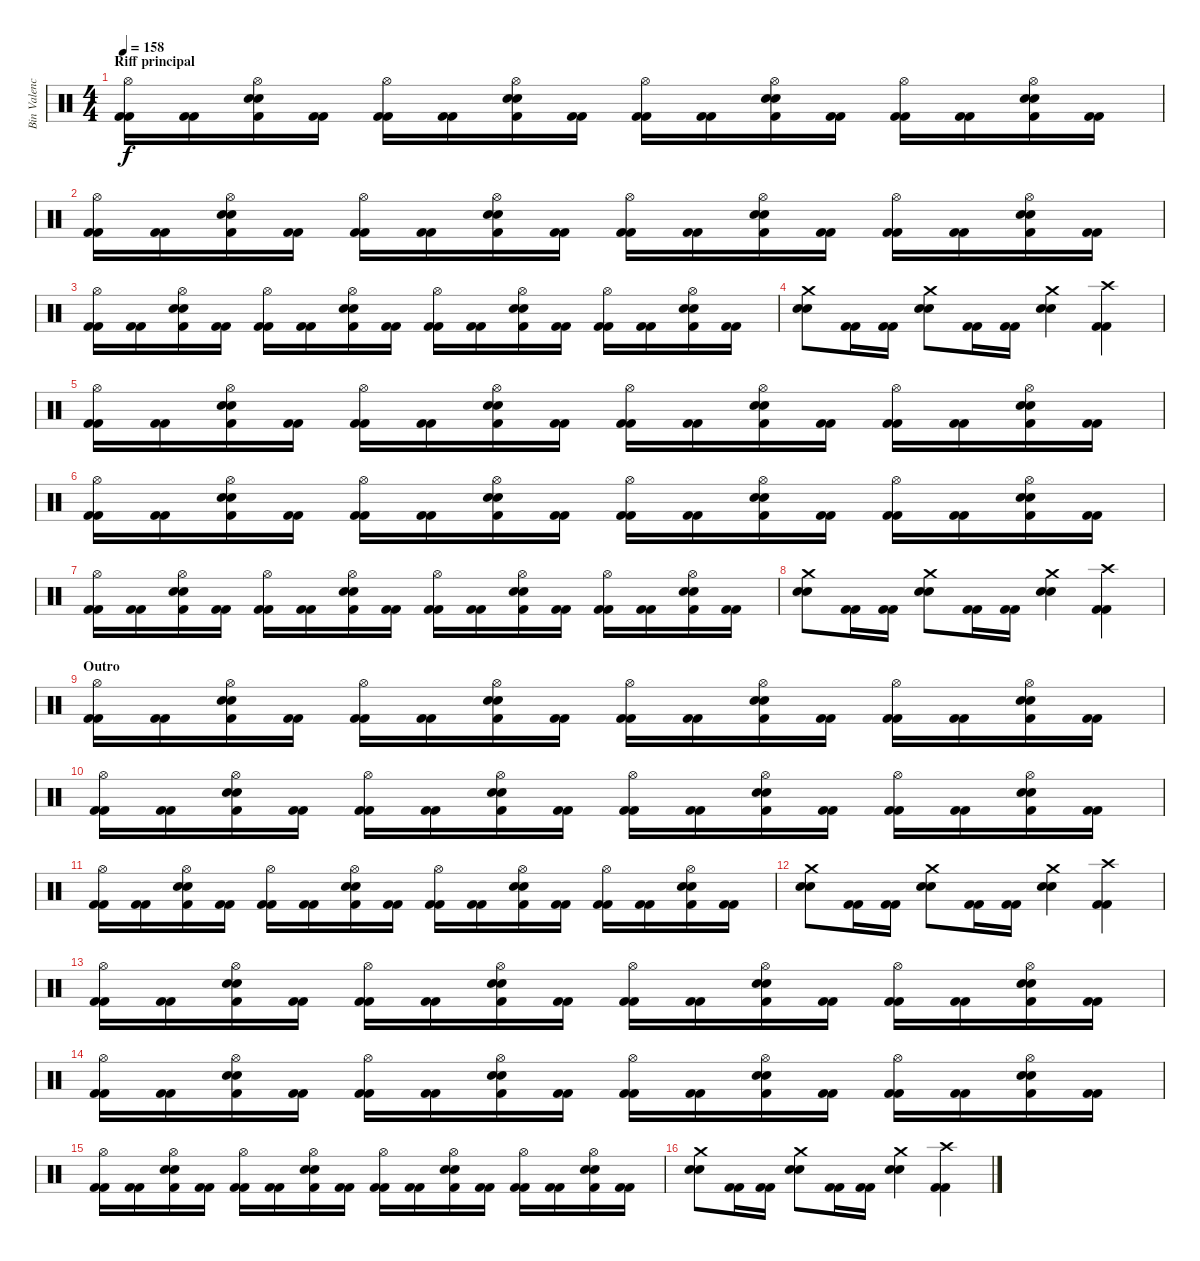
\track ("Bin Valencia (bateria)" "Bin Valenc") {instrument percussion}
\staff {score}
\articulation defaults
\ts (4 4)
\section ("" "Riff principal")
\tempo 158
\clef neutral
\ks c
("Hi-Hat (open)" "Kick (hit) 2" "Kick (hit) 2").16{dy f} ("Kick (hit) 2" "Kick (hit) 2").16 ("Hi-Hat (open)" "Snare (hit) 2" "Snare (hit) 2" "Kick (hit) 2").16 ("Kick (hit) 2" "Kick (hit) 2").16 ("Hi-Hat (open)" "Kick (hit) 2" "Kick (hit) 2").16 ("Kick (hit) 2" "Kick (hit) 2").16 ("Hi-Hat (open)" "Snare (hit) 2" "Snare (hit) 2" "Kick (hit) 2").16 ("Kick (hit) 2" "Kick (hit) 2").16 ("Hi-Hat (open)" "Kick (hit) 2" "Kick (hit) 2").16 ("Kick (hit) 2" "Kick (hit) 2").16 ("Hi-Hat (open)" "Snare (hit) 2" "Snare (hit) 2" "Kick (hit) 2").16 ("Kick (hit) 2" "Kick (hit) 2").16 ("Hi-Hat (open)" "Kick (hit) 2" "Kick (hit) 2").16 ("Kick (hit) 2" "Kick (hit) 2").16 ("Hi-Hat (open)" "Snare (hit) 2" "Snare (hit) 2" "Kick (hit) 2").16 ("Kick (hit) 2" "Kick (hit) 2").16 |
("Hi-Hat (open)" "Kick (hit) 2" "Kick (hit) 2").16 ("Kick (hit) 2" "Kick (hit) 2").16 ("Hi-Hat (open)" "Snare (hit) 2" "Snare (hit) 2" "Kick (hit) 2").16 ("Kick (hit) 2" "Kick (hit) 2").16 ("Hi-Hat (open)" "Kick (hit) 2" "Kick (hit) 2").16 ("Kick (hit) 2" "Kick (hit) 2").16 ("Hi-Hat (open)" "Snare (hit) 2" "Snare (hit) 2" "Kick (hit) 2").16 ("Kick (hit) 2" "Kick (hit) 2").16 ("Hi-Hat (open)" "Kick (hit) 2" "Kick (hit) 2").16 ("Kick (hit) 2" "Kick (hit) 2").16 ("Hi-Hat (open)" "Snare (hit) 2" "Snare (hit) 2" "Kick (hit) 2").16 ("Kick (hit) 2" "Kick (hit) 2").16 ("Hi-Hat (open)" "Kick (hit) 2" "Kick (hit) 2").16 ("Kick (hit) 2" "Kick (hit) 2").16 ("Hi-Hat (open)" "Snare (hit) 2" "Snare (hit) 2" "Kick (hit) 2").16 ("Kick (hit) 2" "Kick (hit) 2").16 |
("Hi-Hat (open)" "Kick (hit) 2" "Kick (hit) 2").16 ("Kick (hit) 2" "Kick (hit) 2").16 ("Hi-Hat (open)" "Snare (hit) 2" "Snare (hit) 2" "Kick (hit) 2").16 ("Kick (hit) 2" "Kick (hit) 2").16 ("Hi-Hat (open)" "Kick (hit) 2" "Kick (hit) 2").16 ("Kick (hit) 2" "Kick (hit) 2").16 ("Hi-Hat (open)" "Snare (hit) 2" "Snare (hit) 2" "Kick (hit) 2").16 ("Kick (hit) 2" "Kick (hit) 2").16 ("Hi-Hat (open)" "Kick (hit) 2" "Kick (hit) 2").16 ("Kick (hit) 2" "Kick (hit) 2").16 ("Hi-Hat (open)" "Snare (hit) 2" "Snare (hit) 2" "Kick (hit) 2").16 ("Kick (hit) 2" "Kick (hit) 2").16 ("Hi-Hat (open)" "Kick (hit) 2" "Kick (hit) 2").16 ("Kick (hit) 2" "Kick (hit) 2").16 ("Hi-Hat (open)" "Snare (hit) 2" "Snare (hit) 2" "Kick (hit) 2").16 ("Kick (hit) 2" "Kick (hit) 2").16 |
("Crash medium (hit)" "Snare (hit) 2" "Snare (hit) 2").8 ("Kick (hit) 2" "Kick (hit) 2").16 ("Kick (hit) 2" "Kick (hit) 2").16 ("Crash medium (hit)" "Snare (hit) 2" "Snare (hit) 2").8 ("Kick (hit) 2" "Kick (hit) 2").16 ("Kick (hit) 2" "Kick (hit) 2").16 ("Crash medium (hit)" "Snare (hit) 2" "Snare (hit) 2").4 ("Crash high (hit)" "Kick (hit) 2" "Kick (hit) 2").4 |
("Hi-Hat (open)" "Kick (hit) 2" "Kick (hit) 2").16 ("Kick (hit) 2" "Kick (hit) 2").16 ("Hi-Hat (open)" "Snare (hit) 2" "Snare (hit) 2" "Kick (hit) 2").16 ("Kick (hit) 2" "Kick (hit) 2").16 ("Hi-Hat (open)" "Kick (hit) 2" "Kick (hit) 2").16 ("Kick (hit) 2" "Kick (hit) 2").16 ("Hi-Hat (open)" "Snare (hit) 2" "Snare (hit) 2" "Kick (hit) 2").16 ("Kick (hit) 2" "Kick (hit) 2").16 ("Hi-Hat (open)" "Kick (hit) 2" "Kick (hit) 2").16 ("Kick (hit) 2" "Kick (hit) 2").16 ("Hi-Hat (open)" "Snare (hit) 2" "Snare (hit) 2" "Kick (hit) 2").16 ("Kick (hit) 2" "Kick (hit) 2").16 ("Hi-Hat (open)" "Kick (hit) 2" "Kick (hit) 2").16 ("Kick (hit) 2" "Kick (hit) 2").16 ("Hi-Hat (open)" "Snare (hit) 2" "Snare (hit) 2" "Kick (hit) 2").16 ("Kick (hit) 2" "Kick (hit) 2").16 |
("Hi-Hat (open)" "Kick (hit) 2" "Kick (hit) 2").16 ("Kick (hit) 2" "Kick (hit) 2").16 ("Hi-Hat (open)" "Snare (hit) 2" "Snare (hit) 2" "Kick (hit) 2").16 ("Kick (hit) 2" "Kick (hit) 2").16 ("Hi-Hat (open)" "Kick (hit) 2" "Kick (hit) 2").16 ("Kick (hit) 2" "Kick (hit) 2").16 ("Hi-Hat (open)" "Snare (hit) 2" "Snare (hit) 2" "Kick (hit) 2").16 ("Kick (hit) 2" "Kick (hit) 2").16 ("Hi-Hat (open)" "Kick (hit) 2" "Kick (hit) 2").16 ("Kick (hit) 2" "Kick (hit) 2").16 ("Hi-Hat (open)" "Snare (hit) 2" "Snare (hit) 2" "Kick (hit) 2").16 ("Kick (hit) 2" "Kick (hit) 2").16 ("Hi-Hat (open)" "Kick (hit) 2" "Kick (hit) 2").16 ("Kick (hit) 2" "Kick (hit) 2").16 ("Hi-Hat (open)" "Snare (hit) 2" "Snare (hit) 2" "Kick (hit) 2").16 ("Kick (hit) 2" "Kick (hit) 2").16 |
("Hi-Hat (open)" "Kick (hit) 2" "Kick (hit) 2").16 ("Kick (hit) 2" "Kick (hit) 2").16 ("Hi-Hat (open)" "Snare (hit) 2" "Snare (hit) 2" "Kick (hit) 2").16 ("Kick (hit) 2" "Kick (hit) 2").16 ("Hi-Hat (open)" "Kick (hit) 2" "Kick (hit) 2").16 ("Kick (hit) 2" "Kick (hit) 2").16 ("Hi-Hat (open)" "Snare (hit) 2" "Snare (hit) 2" "Kick (hit) 2").16 ("Kick (hit) 2" "Kick (hit) 2").16 ("Hi-Hat (open)" "Kick (hit) 2" "Kick (hit) 2").16 ("Kick (hit) 2" "Kick (hit) 2").16 ("Hi-Hat (open)" "Snare (hit) 2" "Snare (hit) 2" "Kick (hit) 2").16 ("Kick (hit) 2" "Kick (hit) 2").16 ("Hi-Hat (open)" "Kick (hit) 2" "Kick (hit) 2").16 ("Kick (hit) 2" "Kick (hit) 2").16 ("Hi-Hat (open)" "Snare (hit) 2" "Snare (hit) 2" "Kick (hit) 2").16 ("Kick (hit) 2" "Kick (hit) 2").16 |
("Crash medium (hit)" "Snare (hit) 2" "Snare (hit) 2").8 ("Kick (hit) 2" "Kick (hit) 2").16 ("Kick (hit) 2" "Kick (hit) 2").16 ("Crash medium (hit)" "Snare (hit) 2" "Snare (hit) 2").8 ("Kick (hit) 2" "Kick (hit) 2").16 ("Kick (hit) 2" "Kick (hit) 2").16 ("Crash medium (hit)" "Snare (hit) 2" "Snare (hit) 2").4 ("Crash high (hit)" "Kick (hit) 2" "Kick (hit) 2").4 |
\section ("" "Outro")
("Hi-Hat (open)" "Kick (hit) 2" "Kick (hit) 2").16 ("Kick (hit) 2" "Kick (hit) 2").16 ("Hi-Hat (open)" "Snare (hit) 2" "Snare (hit) 2" "Kick (hit) 2").16 ("Kick (hit) 2" "Kick (hit) 2").16 ("Hi-Hat (open)" "Kick (hit) 2" "Kick (hit) 2").16 ("Kick (hit) 2" "Kick (hit) 2").16 ("Hi-Hat (open)" "Snare (hit) 2" "Snare (hit) 2" "Kick (hit) 2").16 ("Kick (hit) 2" "Kick (hit) 2").16 ("Hi-Hat (open)" "Kick (hit) 2" "Kick (hit) 2").16 ("Kick (hit) 2" "Kick (hit) 2").16 ("Hi-Hat (open)" "Snare (hit) 2" "Snare (hit) 2" "Kick (hit) 2").16 ("Kick (hit) 2" "Kick (hit) 2").16 ("Hi-Hat (open)" "Kick (hit) 2" "Kick (hit) 2").16 ("Kick (hit) 2" "Kick (hit) 2").16 ("Hi-Hat (open)" "Snare (hit) 2" "Snare (hit) 2" "Kick (hit) 2").16 ("Kick (hit) 2" "Kick (hit) 2").16 |
("Hi-Hat (open)" "Kick (hit) 2" "Kick (hit) 2").16 ("Kick (hit) 2" "Kick (hit) 2").16 ("Hi-Hat (open)" "Snare (hit) 2" "Snare (hit) 2" "Kick (hit) 2").16 ("Kick (hit) 2" "Kick (hit) 2").16 ("Hi-Hat (open)" "Kick (hit) 2" "Kick (hit) 2").16 ("Kick (hit) 2" "Kick (hit) 2").16 ("Hi-Hat (open)" "Snare (hit) 2" "Snare (hit) 2" "Kick (hit) 2").16 ("Kick (hit) 2" "Kick (hit) 2").16 ("Hi-Hat (open)" "Kick (hit) 2" "Kick (hit) 2").16 ("Kick (hit) 2" "Kick (hit) 2").16 ("Hi-Hat (open)" "Snare (hit) 2" "Snare (hit) 2" "Kick (hit) 2").16 ("Kick (hit) 2" "Kick (hit) 2").16 ("Hi-Hat (open)" "Kick (hit) 2" "Kick (hit) 2").16 ("Kick (hit) 2" "Kick (hit) 2").16 ("Hi-Hat (open)" "Snare (hit) 2" "Snare (hit) 2" "Kick (hit) 2").16 ("Kick (hit) 2" "Kick (hit) 2").16 |
("Hi-Hat (open)" "Kick (hit) 2" "Kick (hit) 2").16 ("Kick (hit) 2" "Kick (hit) 2").16 ("Hi-Hat (open)" "Snare (hit) 2" "Snare (hit) 2" "Kick (hit) 2").16 ("Kick (hit) 2" "Kick (hit) 2").16 ("Hi-Hat (open)" "Kick (hit) 2" "Kick (hit) 2").16 ("Kick (hit) 2" "Kick (hit) 2").16 ("Hi-Hat (open)" "Snare (hit) 2" "Snare (hit) 2" "Kick (hit) 2").16 ("Kick (hit) 2" "Kick (hit) 2").16 ("Hi-Hat (open)" "Kick (hit) 2" "Kick (hit) 2").16 ("Kick (hit) 2" "Kick (hit) 2").16 ("Hi-Hat (open)" "Snare (hit) 2" "Snare (hit) 2" "Kick (hit) 2").16 ("Kick (hit) 2" "Kick (hit) 2").16 ("Hi-Hat (open)" "Kick (hit) 2" "Kick (hit) 2").16 ("Kick (hit) 2" "Kick (hit) 2").16 ("Hi-Hat (open)" "Snare (hit) 2" "Snare (hit) 2" "Kick (hit) 2").16 ("Kick (hit) 2" "Kick (hit) 2").16 |
("Crash medium (hit)" "Snare (hit) 2" "Snare (hit) 2").8 ("Kick (hit) 2" "Kick (hit) 2").16 ("Kick (hit) 2" "Kick (hit) 2").16 ("Crash medium (hit)" "Snare (hit) 2" "Snare (hit) 2").8 ("Kick (hit) 2" "Kick (hit) 2").16 ("Kick (hit) 2" "Kick (hit) 2").16 ("Crash medium (hit)" "Snare (hit) 2" "Snare (hit) 2").4 ("Crash high (hit)" "Kick (hit) 2" "Kick (hit) 2").4 |
("Hi-Hat (open)" "Kick (hit) 2" "Kick (hit) 2").16 ("Kick (hit) 2" "Kick (hit) 2").16 ("Hi-Hat (open)" "Snare (hit) 2" "Snare (hit) 2" "Kick (hit) 2").16 ("Kick (hit) 2" "Kick (hit) 2").16 ("Hi-Hat (open)" "Kick (hit) 2" "Kick (hit) 2").16 ("Kick (hit) 2" "Kick (hit) 2").16 ("Hi-Hat (open)" "Snare (hit) 2" "Snare (hit) 2" "Kick (hit) 2").16 ("Kick (hit) 2" "Kick (hit) 2").16 ("Hi-Hat (open)" "Kick (hit) 2" "Kick (hit) 2").16 ("Kick (hit) 2" "Kick (hit) 2").16 ("Hi-Hat (open)" "Snare (hit) 2" "Snare (hit) 2" "Kick (hit) 2").16 ("Kick (hit) 2" "Kick (hit) 2").16 ("Hi-Hat (open)" "Kick (hit) 2" "Kick (hit) 2").16 ("Kick (hit) 2" "Kick (hit) 2").16 ("Hi-Hat (open)" "Snare (hit) 2" "Snare (hit) 2" "Kick (hit) 2").16 ("Kick (hit) 2" "Kick (hit) 2").16 |
("Hi-Hat (open)" "Kick (hit) 2" "Kick (hit) 2").16 ("Kick (hit) 2" "Kick (hit) 2").16 ("Hi-Hat (open)" "Snare (hit) 2" "Snare (hit) 2" "Kick (hit) 2").16 ("Kick (hit) 2" "Kick (hit) 2").16 ("Hi-Hat (open)" "Kick (hit) 2" "Kick (hit) 2").16 ("Kick (hit) 2" "Kick (hit) 2").16 ("Hi-Hat (open)" "Snare (hit) 2" "Snare (hit) 2" "Kick (hit) 2").16 ("Kick (hit) 2" "Kick (hit) 2").16 ("Hi-Hat (open)" "Kick (hit) 2" "Kick (hit) 2").16 ("Kick (hit) 2" "Kick (hit) 2").16 ("Hi-Hat (open)" "Snare (hit) 2" "Snare (hit) 2" "Kick (hit) 2").16 ("Kick (hit) 2" "Kick (hit) 2").16 ("Hi-Hat (open)" "Kick (hit) 2" "Kick (hit) 2").16 ("Kick (hit) 2" "Kick (hit) 2").16 ("Hi-Hat (open)" "Snare (hit) 2" "Snare (hit) 2" "Kick (hit) 2").16 ("Kick (hit) 2" "Kick (hit) 2").16 |
("Hi-Hat (open)" "Kick (hit) 2" "Kick (hit) 2").16 ("Kick (hit) 2" "Kick (hit) 2").16 ("Hi-Hat (open)" "Snare (hit) 2" "Snare (hit) 2" "Kick (hit) 2").16 ("Kick (hit) 2" "Kick (hit) 2").16 ("Hi-Hat (open)" "Kick (hit) 2" "Kick (hit) 2").16 ("Kick (hit) 2" "Kick (hit) 2").16 ("Hi-Hat (open)" "Snare (hit) 2" "Snare (hit) 2" "Kick (hit) 2").16 ("Kick (hit) 2" "Kick (hit) 2").16 ("Hi-Hat (open)" "Kick (hit) 2" "Kick (hit) 2").16 ("Kick (hit) 2" "Kick (hit) 2").16 ("Hi-Hat (open)" "Snare (hit) 2" "Snare (hit) 2" "Kick (hit) 2").16 ("Kick (hit) 2" "Kick (hit) 2").16 ("Hi-Hat (open)" "Kick (hit) 2" "Kick (hit) 2").16 ("Kick (hit) 2" "Kick (hit) 2").16 ("Hi-Hat (open)" "Snare (hit) 2" "Snare (hit) 2" "Kick (hit) 2").16 ("Kick (hit) 2" "Kick (hit) 2").16 |
("Crash medium (hit)" "Snare (hit) 2" "Snare (hit) 2").8 ("Kick (hit) 2" "Kick (hit) 2").16 ("Kick (hit) 2" "Kick (hit) 2").16 ("Crash medium (hit)" "Snare (hit) 2" "Snare (hit) 2").8 ("Kick (hit) 2" "Kick (hit) 2").16 ("Kick (hit) 2" "Kick (hit) 2").16 ("Crash medium (hit)" "Snare (hit) 2" "Snare (hit) 2").4 ("Crash high (hit)" "Kick (hit) 2" "Kick (hit) 2").4
